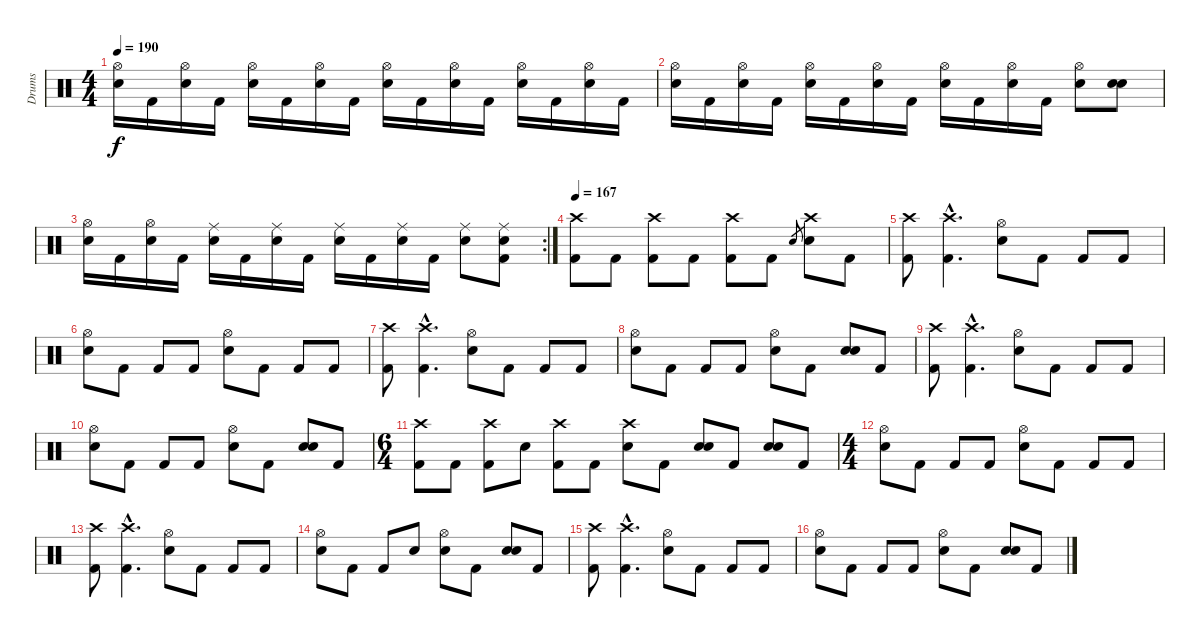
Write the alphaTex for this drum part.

\track ("Drums" "Drums") {instrument percussion}
\staff {score}
\articulation defaults
\ts (4 4)
\tempo 190
\clef neutral
\ks c
("Hi-Hat (open)" "Electric Snare (hit)").16{dy f} "Kick (hit) 2".16 ("Hi-Hat (open)" "Electric Snare (hit)").16 "Kick (hit) 2".16 ("Hi-Hat (open)" "Electric Snare (hit)").16 "Kick (hit) 2".16 ("Hi-Hat (open)" "Electric Snare (hit)").16 "Kick (hit) 2".16 ("Hi-Hat (open)" "Electric Snare (hit)").16 "Kick (hit) 2".16 ("Hi-Hat (open)" "Electric Snare (hit)").16 "Kick (hit) 2".16 ("Hi-Hat (open)" "Electric Snare (hit)").16 "Kick (hit) 2".16 ("Hi-Hat (open)" "Electric Snare (hit)").16 "Kick (hit) 2".16 |
("Hi-Hat (open)" "Electric Snare (hit)").16 "Kick (hit) 2".16 ("Hi-Hat (open)" "Electric Snare (hit)").16 "Kick (hit) 2".16 ("Hi-Hat (open)" "Electric Snare (hit)").16 "Kick (hit) 2".16 ("Hi-Hat (open)" "Electric Snare (hit)").16 "Kick (hit) 2".16 ("Hi-Hat (open)" "Electric Snare (hit)").16 "Kick (hit) 2".16 ("Hi-Hat (open)" "Electric Snare (hit)").16 "Kick (hit) 2".16 ("Hi-Hat (open)" "Electric Snare (hit)").8 ("Electric Snare (hit)" "Electric Snare (hit)").8{bu 480} |
\rc 2
("Hi-Hat (open)" "Electric Snare (hit)").16 "Kick (hit) 2".16 ("Hi-Hat (open)" "Electric Snare (hit)").16 "Kick (hit) 2".16 ("Ride (middle)" "Electric Snare (hit)").16 "Kick (hit) 2".16 ("Ride (middle)" "Electric Snare (hit)").16 "Kick (hit) 2".16 ("Ride (middle)" "Electric Snare (hit)").16 "Kick (hit) 2".16 ("Ride (middle)" "Electric Snare (hit)").16 "Kick (hit) 2".16 ("Ride (middle)" "Electric Snare (hit)").8 ("Ride (middle)" "Electric Snare (hit)" "Kick (hit) 2").8 |
\tempo 167
("Crash high (hit)" "Kick (hit) 2").8 "Kick (hit) 2".8 ("Crash high (hit)" "Kick (hit) 2").8 "Kick (hit) 2".8 ("Crash high (hit)" "Kick (hit) 2").8 "Kick (hit) 2".8 "Electric Snare (hit)".8{gr} ("Crash high (hit)" "Electric Snare (hit)").8 "Kick (hit) 2".8 |
("Crash high (hit)" "Kick (hit) 2").8 ("Crash high (hit)"{hac} "Kick (hit) 2"{hac}).4{d} ("Hi-Hat (open)" "Electric Snare (hit)").8 "Kick (hit) 2".8 "Kick (hit) 2".8 "Kick (hit) 2".8 |
("Hi-Hat (open)" "Electric Snare (hit)").8 "Kick (hit) 2".8 "Kick (hit) 2".8 "Kick (hit) 2".8 ("Hi-Hat (open)" "Electric Snare (hit)").8 "Kick (hit) 2".8 "Kick (hit) 2".8 "Kick (hit) 2".8 |
("Crash high (hit)" "Kick (hit) 2").8 ("Crash high (hit)"{hac} "Kick (hit) 2"{hac}).4{d} ("Hi-Hat (open)" "Electric Snare (hit)").8 "Kick (hit) 2".8 "Kick (hit) 2".8 "Kick (hit) 2".8 |
("Hi-Hat (open)" "Electric Snare (hit)").8 "Kick (hit) 2".8 "Kick (hit) 2".8 "Kick (hit) 2".8 ("Hi-Hat (open)" "Electric Snare (hit)").8 "Kick (hit) 2".8 ("Electric Snare (hit)" "Electric Snare (hit)").8{bu 120} "Kick (hit) 2".8 |
("Crash high (hit)" "Kick (hit) 2").8 ("Crash high (hit)"{hac} "Kick (hit) 2"{hac}).4{d} ("Hi-Hat (open)" "Electric Snare (hit)").8 "Kick (hit) 2".8 "Kick (hit) 2".8 "Kick (hit) 2".8 |
("Hi-Hat (open)" "Electric Snare (hit)").8 "Kick (hit) 2".8 "Kick (hit) 2".8 "Kick (hit) 2".8 ("Hi-Hat (open)" "Electric Snare (hit)").8 "Kick (hit) 2".8 ("Electric Snare (hit)" "Electric Snare (hit)").8{bu 120} "Kick (hit) 2".8 |
\ts (6 4)
("Crash high (hit)" "Kick (hit) 2").8 "Kick (hit) 2".8 ("Crash high (hit)" "Kick (hit) 2").8 "Electric Snare (hit)".8 ("Crash high (hit)" "Kick (hit) 2").8 "Kick (hit) 2".8 ("Crash high (hit)" "Electric Snare (hit)").8 "Kick (hit) 2".8 ("Electric Snare (hit)" "Electric Snare (hit)").8{bu 120} "Kick (hit) 2".8 ("Electric Snare (hit)" "Electric Snare (hit)").8{bu 120} "Kick (hit) 2".8 |
\ts (4 4)
("Hi-Hat (open)" "Electric Snare (hit)").8 "Kick (hit) 2".8 "Kick (hit) 2".8 "Kick (hit) 2".8 ("Hi-Hat (open)" "Electric Snare (hit)").8 "Kick (hit) 2".8 "Kick (hit) 2".8 "Kick (hit) 2".8 |
("Crash high (hit)" "Kick (hit) 2").8 ("Crash high (hit)"{hac} "Kick (hit) 2"{hac}).4{d} ("Hi-Hat (open)" "Electric Snare (hit)").8 "Kick (hit) 2".8 "Kick (hit) 2".8 "Kick (hit) 2".8 |
("Hi-Hat (open)" "Electric Snare (hit)").8 "Kick (hit) 2".8 "Kick (hit) 2".8 "Electric Snare (hit)".8 ("Hi-Hat (open)" "Electric Snare (hit)").8 "Kick (hit) 2".8 ("Electric Snare (hit)" "Electric Snare (hit)").8{bu 120} "Kick (hit) 2".8 |
("Crash high (hit)" "Kick (hit) 2").8 ("Crash high (hit)"{hac} "Kick (hit) 2"{hac}).4{d} ("Hi-Hat (open)" "Electric Snare (hit)").8 "Kick (hit) 2".8 "Kick (hit) 2".8 "Kick (hit) 2".8 |
("Hi-Hat (open)" "Electric Snare (hit)").8 "Kick (hit) 2".8 "Kick (hit) 2".8 "Kick (hit) 2".8 ("Hi-Hat (open)" "Electric Snare (hit)").8 "Kick (hit) 2".8 ("Electric Snare (hit)" "Electric Snare (hit)").8{bu 120} "Kick (hit) 2".8
